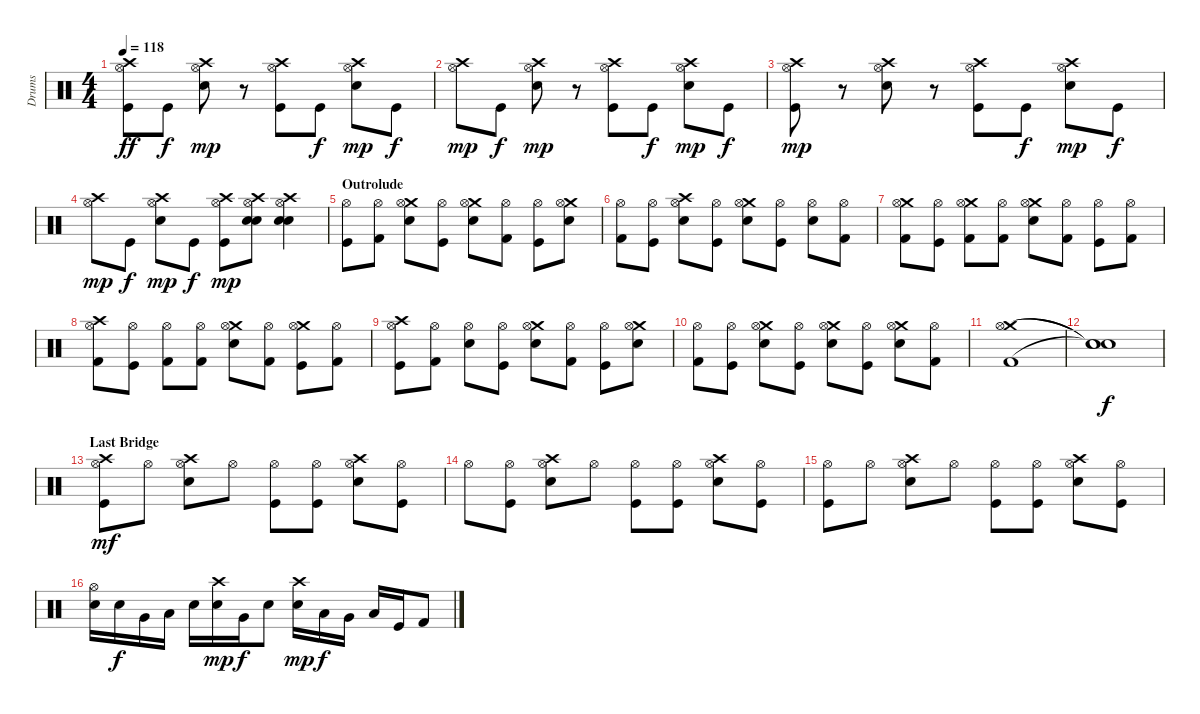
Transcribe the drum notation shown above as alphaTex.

\track ("Drums" "Drums") {instrument percussion}
\staff {score}
\articulation defaults
\ts (4 4)
\tempo 118
\clef neutral
\ks c
("Crash high (hit)" "Hi-Hat (open)" "Kick (hit)").8{dy ff} "Kick (hit)".8{dy f} ("Crash high (hit)" "Hi-Hat (open)" "Snare (hit) 2").8{dy mp} r.8 ("Crash high (hit)" "Hi-Hat (open)" "Kick (hit)").8 "Kick (hit)".8{dy f} ("Crash high (hit)" "Hi-Hat (open)" "Snare (hit) 2").8{dy mp} "Kick (hit)".8{dy f} |
("Crash high (hit)" "Hi-Hat (open)").8{dy mp} "Kick (hit)".8{dy f} ("Crash high (hit)" "Hi-Hat (open)" "Snare (hit) 2").8{dy mp} r.8 ("Crash high (hit)" "Hi-Hat (open)" "Kick (hit)").8 "Kick (hit)".8{dy f} ("Crash high (hit)" "Hi-Hat (open)" "Snare (hit) 2").8{dy mp} "Kick (hit)".8{dy f} |
("Crash high (hit)" "Hi-Hat (open)" "Kick (hit)").8{dy mp} r.8 ("Crash high (hit)" "Hi-Hat (open)" "Snare (hit) 2").8 r.8 ("Crash high (hit)" "Hi-Hat (open)" "Kick (hit)").8 "Kick (hit)".8{dy f} ("Crash high (hit)" "Hi-Hat (open)" "Snare (hit) 2").8{dy mp} "Kick (hit)".8{dy f} |
("Crash high (hit)" "Hi-Hat (open)").8{dy mp} "Kick (hit)".8{dy f} ("Crash high (hit)" "Hi-Hat (open)" "Snare (hit) 2").8{dy mp} "Kick (hit)".8{dy f} ("Crash high (hit)" "Hi-Hat (open)" "Kick (hit)").8{dy mp} ("Crash high (hit)" "Hi-Hat (open)" "Electric Snare (hit)" "Snare (hit) 2").8 ("Crash high (hit)" "Hi-Hat (open)" "Electric Snare (hit)" "Snare (hit) 2").4 |
\section ("" "Outrolude")
("Hi-Hat (open)" "Kick (hit)").8 ("Hi-Hat (open)" "Kick (hit) 2").8 ("Crash medium (hit)" "Hi-Hat (open)" "Snare (hit) 2").8 ("Hi-Hat (open)" "Kick (hit)").8 ("Crash medium (hit)" "Hi-Hat (open)" "Snare (hit) 2").8 ("Hi-Hat (open)" "Kick (hit) 2").8 ("Hi-Hat (open)" "Kick (hit)").8 ("Crash medium (hit)" "Hi-Hat (open)" "Snare (hit) 2").8 |
("Hi-Hat (open)" "Kick (hit) 2").8 ("Hi-Hat (open)" "Kick (hit)").8 ("Crash high (hit)" "Hi-Hat (open)" "Snare (hit) 2").8 ("Hi-Hat (open)" "Kick (hit)").8 ("Crash medium (hit)" "Hi-Hat (open)" "Snare (hit) 2").8 ("Hi-Hat (open)" "Kick (hit)").8 ("Hi-Hat (open)" "Snare (hit) 2").8 ("Hi-Hat (open)" "Kick (hit) 2").8 |
("Crash medium (hit)" "Hi-Hat (open)" "Kick (hit) 2").8 ("Hi-Hat (open)" "Kick (hit)").8 ("Crash medium (hit)" "Hi-Hat (open)" "Kick (hit) 2").8 ("Hi-Hat (open)" "Kick (hit) 2").8 ("Crash medium (hit)" "Hi-Hat (open)" "Snare (hit) 2").8 ("Hi-Hat (open)" "Kick (hit) 2").8 ("Hi-Hat (open)" "Kick (hit)").8 ("Hi-Hat (open)" "Kick (hit) 2").8 |
("Crash high (hit)" "Hi-Hat (open)" "Kick (hit) 2").8 ("Hi-Hat (open)" "Kick (hit)").8 ("Hi-Hat (open)" "Kick (hit) 2").8 ("Hi-Hat (open)" "Kick (hit) 2").8 ("Crash medium (hit)" "Hi-Hat (open)" "Snare (hit) 2").8 ("Hi-Hat (open)" "Kick (hit) 2").8 ("Crash medium (hit)" "Hi-Hat (open)" "Kick (hit)").8 ("Hi-Hat (open)" "Kick (hit) 2").8 |
("Crash high (hit)" "Hi-Hat (open)" "Kick (hit)").8 ("Hi-Hat (open)" "Kick (hit) 2").8 ("Hi-Hat (open)" "Snare (hit) 2").8 ("Hi-Hat (open)" "Kick (hit)").8 ("Crash medium (hit)" "Hi-Hat (open)" "Snare (hit) 2").8 ("Hi-Hat (open)" "Kick (hit) 2").8 ("Hi-Hat (open)" "Kick (hit)").8 ("Crash medium (hit)" "Hi-Hat (open)" "Snare (hit) 2").8 |
("Hi-Hat (open)" "Kick (hit) 2").8 ("Hi-Hat (open)" "Kick (hit)").8 ("Crash medium (hit)" "Hi-Hat (open)" "Snare (hit) 2").8 ("Hi-Hat (open)" "Kick (hit)").8 ("Crash medium (hit)" "Hi-Hat (open)" "Snare (hit) 2").8 ("Hi-Hat (open)" "Kick (hit)").8 ("Crash medium (hit)" "Hi-Hat (open)" "Snare (hit) 2").8 ("Hi-Hat (open)" "Kick (hit) 2").8 |
("Crash medium (hit)" "Hi-Hat (open)" "Kick (hit) 2").1 |
("Snare (hit)"{t} "Snare (hit)"{t} "Snare (hit)"{t}).1{dy f} |
\section ("" "Last Bridge")
("Crash high (hit)" "Hi-Hat (open)" "Kick (hit)").8{dy mf} "Hi-Hat (open)".8 ("Crash high (hit)" "Hi-Hat (open)" "Snare (hit) 2").8 "Hi-Hat (open)".8 ("Hi-Hat (open)" "Kick (hit)").8 ("Hi-Hat (open)" "Kick (hit)").8 ("Crash high (hit)" "Hi-Hat (open)" "Snare (hit) 2").8 ("Hi-Hat (open)" "Kick (hit)").8 |
"Hi-Hat (open)".8 ("Hi-Hat (open)" "Kick (hit)").8 ("Crash high (hit)" "Hi-Hat (open)" "Snare (hit) 2").8 "Hi-Hat (open)".8 ("Hi-Hat (open)" "Kick (hit)").8 ("Hi-Hat (open)" "Kick (hit)").8 ("Crash high (hit)" "Hi-Hat (open)" "Snare (hit) 2").8 ("Hi-Hat (open)" "Kick (hit)").8 |
("Hi-Hat (open)" "Kick (hit)").8 "Hi-Hat (open)".8 ("Crash high (hit)" "Hi-Hat (open)" "Snare (hit) 2").8 "Hi-Hat (open)".8 ("Hi-Hat (open)" "Kick (hit)").8 ("Hi-Hat (open)" "Kick (hit)").8 ("Crash high (hit)" "Hi-Hat (open)" "Snare (hit) 2").8 ("Hi-Hat (open)" "Kick (hit)").8 |
("Hi-Hat (open)" "Snare (hit) 2").16 "Snare (hit) 2".16{dy f} "Very Low Tom (hit)".16 "Low Floor Tom (hit)".16 "Snare (hit) 2".16 ("Crash high (hit)" "Snare (hit) 2").16{dy mp} "Very Low Tom (hit)".16{dy f} "Snare (hit) 2".8 ("Crash high (hit)" "Snare (hit) 2").16{dy mp} "Low Tom (hit)".16{dy f} "Very Low Tom (hit)".16 "Low Floor Tom (hit)".16 "Kick (hit)".16 "Kick (hit) 2".8
